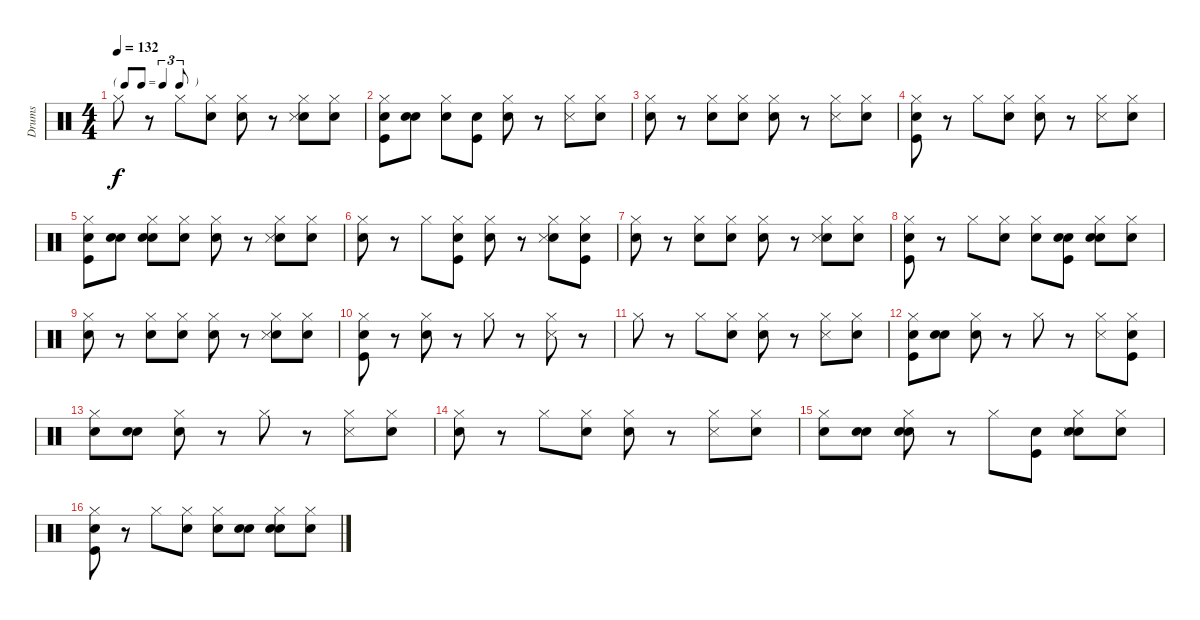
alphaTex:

\track ("Drums" "Drums") {instrument percussion}
\staff {score}
\articulation defaults
\ts (4 4)
\tf triplet8th
\tempo 132
\clef neutral
\ks c "Hi-Hat (closed)".8{dy f}
r.8 "Hi-Hat (closed)".8 ("Snare (hit)" "Hi-Hat (closed)").8 ("Snare (hit)" "Hi-Hat (closed)").8 r.8 ("Snare (hit) 2" "Hi-Hat (closed)" "Snare (side stick) 3").8 ("Snare (hit)" "Hi-Hat (closed)").8 |
("Snare (hit)" "Kick (hit)" "Hi-Hat (closed)").8 ("Snare (hit)" "Snare (hit) 2").8 ("Snare (hit)" "Hi-Hat (closed)").8 ("Snare (hit)" "Kick (hit)").8 ("Snare (hit)" "Hi-Hat (closed)").8 r.8 ("Hi-Hat (closed)" "Snare (side stick) 3").8 ("Snare (hit)" "Hi-Hat (closed)").8 |
("Snare (hit)" "Hi-Hat (closed)").8 r.8 ("Snare (hit) 2" "Hi-Hat (closed)").8 ("Snare (hit)" "Hi-Hat (closed)").8 ("Snare (hit)" "Hi-Hat (closed)").8 r.8 ("Hi-Hat (closed)" "Snare (side stick) 3").8 ("Snare (hit)" "Hi-Hat (closed)").8 |
("Snare (hit)" "Kick (hit)" "Hi-Hat (closed)").8 r.8 "Hi-Hat (closed)".8 ("Snare (hit)" "Hi-Hat (closed)").8 ("Snare (hit)" "Hi-Hat (closed)").8 r.8 ("Hi-Hat (closed)" "Snare (side stick) 3").8 ("Snare (hit)" "Hi-Hat (closed)").8 |
("Snare (hit)" "Kick (hit)" "Hi-Hat (closed)").8 ("Snare (hit)" "Snare (hit) 2").8 ("Snare (hit)" "Snare (hit) 2" "Hi-Hat (closed)").8 ("Snare (hit)" "Hi-Hat (closed)").8 ("Snare (hit)" "Hi-Hat (closed)").8 r.8 ("Snare (hit) 2" "Hi-Hat (closed)" "Snare (side stick) 3").8 ("Snare (hit)" "Hi-Hat (closed)").8 |
("Snare (hit)" "Hi-Hat (closed)").8 r.8 "Hi-Hat (closed)".8 ("Snare (hit)" "Kick (hit)" "Hi-Hat (closed)").8 ("Snare (hit)" "Hi-Hat (closed)").8 r.8 ("Snare (hit) 2" "Hi-Hat (closed)" "Snare (side stick) 3").8 ("Snare (hit)" "Kick (hit)" "Hi-Hat (closed)").8 |
("Snare (hit)" "Hi-Hat (closed)").8 r.8 ("Snare (hit) 2" "Hi-Hat (closed)").8 ("Snare (hit)" "Hi-Hat (closed)").8 ("Snare (hit)" "Hi-Hat (closed)").8 r.8 ("Snare (hit) 2" "Hi-Hat (closed)" "Snare (side stick) 3").8 ("Snare (hit)" "Hi-Hat (closed)").8 |
("Snare (hit)" "Kick (hit)" "Hi-Hat (closed)").8 r.8 "Hi-Hat (closed)".8 ("Snare (hit)" "Hi-Hat (closed)").8 ("Snare (hit)" "Hi-Hat (closed)").8 ("Snare (hit)" "Kick (hit)" "Snare (hit) 2").8 ("Snare (hit)" "Snare (hit) 2" "Hi-Hat (closed)").8 ("Snare (hit)" "Hi-Hat (closed)").8 |
("Snare (hit)" "Hi-Hat (closed)").8 r.8 ("Snare (hit) 2" "Hi-Hat (closed)").8 ("Snare (hit)" "Hi-Hat (closed)").8 ("Snare (hit)" "Hi-Hat (closed)").8 r.8 ("Snare (hit) 2" "Hi-Hat (closed)" "Snare (side stick) 3").8 ("Snare (hit)" "Hi-Hat (closed)").8 |
("Snare (hit)" "Kick (hit)" "Hi-Hat (closed)").8 r.8 ("Snare (hit) 2" "Hi-Hat (closed)").8 r.8 "Hi-Hat (closed)".8 r.8 ("Hi-Hat (closed)" "Snare (side stick) 3").8 r.8 |
"Hi-Hat (closed)".8 r.8 "Hi-Hat (closed)".8 ("Snare (hit)" "Hi-Hat (closed)").8 ("Snare (hit)" "Hi-Hat (closed)").8 r.8 ("Hi-Hat (closed)" "Snare (side stick) 3").8 ("Snare (hit)" "Hi-Hat (closed)").8 |
("Snare (hit)" "Kick (hit)" "Hi-Hat (closed)").8 ("Snare (hit)" "Snare (hit) 2").8 ("Snare (hit)" "Hi-Hat (closed)").8 r.8 "Hi-Hat (closed)".8 r.8 ("Hi-Hat (closed)" "Snare (side stick) 3").8 ("Snare (hit)" "Kick (hit)" "Hi-Hat (closed)").8 |
("Snare (hit)" "Hi-Hat (closed)").8 ("Snare (hit)" "Snare (hit) 2").8 ("Snare (hit)" "Hi-Hat (closed)").8 r.8 "Hi-Hat (closed)".8 r.8 ("Hi-Hat (closed)" "Snare (side stick) 3").8 ("Snare (hit)" "Hi-Hat (closed)").8 |
("Snare (hit)" "Hi-Hat (closed)").8 r.8 "Hi-Hat (closed)".8 ("Snare (hit)" "Hi-Hat (closed)").8 ("Snare (hit)" "Hi-Hat (closed)").8 r.8 ("Hi-Hat (closed)" "Snare (side stick) 3").8 ("Snare (hit)" "Hi-Hat (closed)").8 |
("Snare (hit)" "Hi-Hat (closed)").8 ("Snare (hit)" "Snare (hit) 2").8 ("Snare (hit)" "Snare (hit) 2" "Hi-Hat (closed)").8 r.8 "Hi-Hat (closed)".8 ("Snare (hit)" "Kick (hit)").8 ("Snare (hit)" "Snare (hit) 2" "Hi-Hat (closed)" "Snare (side stick) 3").8 ("Snare (hit)" "Hi-Hat (closed)").8 |
("Snare (hit)" "Kick (hit)" "Hi-Hat (closed)").8 r.8 "Hi-Hat (closed)".8 ("Snare (hit)" "Hi-Hat (closed)").8 ("Snare (hit)" "Hi-Hat (closed)").8 ("Snare (hit)" "Snare (hit) 2").8 ("Snare (hit)" "Snare (hit) 2" "Hi-Hat (closed)").8 ("Snare (hit)" "Hi-Hat (closed)").8
